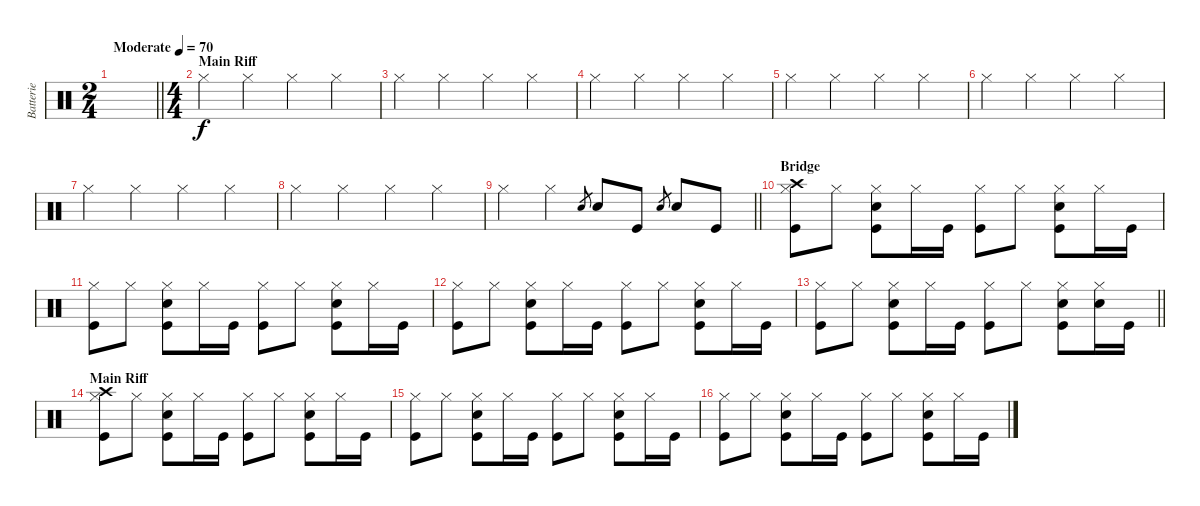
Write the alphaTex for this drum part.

\track ("Batterie" "Batterie") {instrument percussion}
\staff {score}
\articulation defaults
\ts (2 4)
\tempo (70 "Moderate")
\clef neutral
\barLineRight lightlight
\ks c
|
\ts (4 4)
\section ("" "Main Riff")
"Hi-Hat (closed)".4 "Hi-Hat (closed)".4 "Hi-Hat (closed)".4 "Hi-Hat (closed)".4 |
"Hi-Hat (closed)".4 "Hi-Hat (closed)".4 "Hi-Hat (closed)".4 "Hi-Hat (closed)".4 |
"Hi-Hat (closed)".4 "Hi-Hat (closed)".4 "Hi-Hat (closed)".4 "Hi-Hat (closed)".4 |
"Hi-Hat (closed)".4 "Hi-Hat (closed)".4 "Hi-Hat (closed)".4 "Hi-Hat (closed)".4 |
"Hi-Hat (closed)".4 "Hi-Hat (closed)".4 "Hi-Hat (closed)".4 "Hi-Hat (closed)".4 |
"Hi-Hat (closed)".4 "Hi-Hat (closed)".4 "Hi-Hat (closed)".4 "Hi-Hat (closed)".4 |
"Hi-Hat (closed)".4 "Hi-Hat (closed)".4 "Hi-Hat (closed)".4 "Hi-Hat (closed)".4 |
\barLineRight lightlight "Hi-Hat (closed)".4 "Hi-Hat (closed)".4 "Snare (hit) 2".8{gr} "Snare (hit) 2".8 "Kick (hit)".8 "Snare (hit) 2".8{gr} "Snare (hit) 2".8 "Kick (hit)".8
|
\section ("" "Bridge")
("Crash high (hit)" "Kick (hit)" "Hi-Hat (closed)").8 "Hi-Hat (closed)".8 ("Snare (hit) 2" "Kick (hit)" "Hi-Hat (closed)").8 "Hi-Hat (closed)".16 "Kick (hit)".16 ("Kick (hit)" "Hi-Hat (closed)").8 "Hi-Hat (closed)".8 ("Snare (hit) 2" "Kick (hit)" "Hi-Hat (closed)").8 "Hi-Hat (closed)".16 "Kick (hit)".16 |
("Kick (hit)" "Hi-Hat (closed)").8 "Hi-Hat (closed)".8 ("Snare (hit) 2" "Kick (hit)" "Hi-Hat (closed)").8 "Hi-Hat (closed)".16 "Kick (hit)".16 ("Kick (hit)" "Hi-Hat (closed)").8 "Hi-Hat (closed)".8 ("Snare (hit) 2" "Kick (hit)" "Hi-Hat (closed)").8 "Hi-Hat (closed)".16 "Kick (hit)".16 |
("Kick (hit)" "Hi-Hat (closed)").8 "Hi-Hat (closed)".8 ("Snare (hit) 2" "Kick (hit)" "Hi-Hat (closed)").8 "Hi-Hat (closed)".16 "Kick (hit)".16 ("Kick (hit)" "Hi-Hat (closed)").8 "Hi-Hat (closed)".8 ("Snare (hit) 2" "Kick (hit)" "Hi-Hat (closed)").8 "Hi-Hat (closed)".16 "Kick (hit)".16 |
\barLineRight lightlight
("Kick (hit)" "Hi-Hat (closed)").8 "Hi-Hat (closed)".8 ("Snare (hit) 2" "Kick (hit)" "Hi-Hat (closed)").8 "Hi-Hat (closed)".16 "Kick (hit)".16 ("Kick (hit)" "Hi-Hat (closed)").8 "Hi-Hat (closed)".8 ("Snare (hit) 2" "Kick (hit)" "Hi-Hat (closed)").8 ("Snare (hit) 2" "Hi-Hat (closed)").16 "Kick (hit)".16 |
\section ("" "Main Riff")
("Crash high (hit)" "Kick (hit)" "Hi-Hat (closed)").8 "Hi-Hat (closed)".8 ("Snare (hit) 2" "Kick (hit)" "Hi-Hat (closed)").8 "Hi-Hat (closed)".16 "Kick (hit)".16 ("Kick (hit)" "Hi-Hat (closed)").8 "Hi-Hat (closed)".8 ("Snare (hit) 2" "Kick (hit)" "Hi-Hat (closed)").8 "Hi-Hat (closed)".16 "Kick (hit)".16 |
("Kick (hit)" "Hi-Hat (closed)").8 "Hi-Hat (closed)".8 ("Snare (hit) 2" "Kick (hit)" "Hi-Hat (closed)").8 "Hi-Hat (closed)".16 "Kick (hit)".16 ("Kick (hit)" "Hi-Hat (closed)").8 "Hi-Hat (closed)".8 ("Snare (hit) 2" "Kick (hit)" "Hi-Hat (closed)").8 "Hi-Hat (closed)".16 "Kick (hit)".16 |
("Kick (hit)" "Hi-Hat (closed)").8 "Hi-Hat (closed)".8 ("Snare (hit) 2" "Kick (hit)" "Hi-Hat (closed)").8 "Hi-Hat (closed)".16 "Kick (hit)".16 ("Kick (hit)" "Hi-Hat (closed)").8 "Hi-Hat (closed)".8 ("Snare (hit) 2" "Kick (hit)" "Hi-Hat (closed)").8 "Hi-Hat (closed)".16 "Kick (hit)".16
